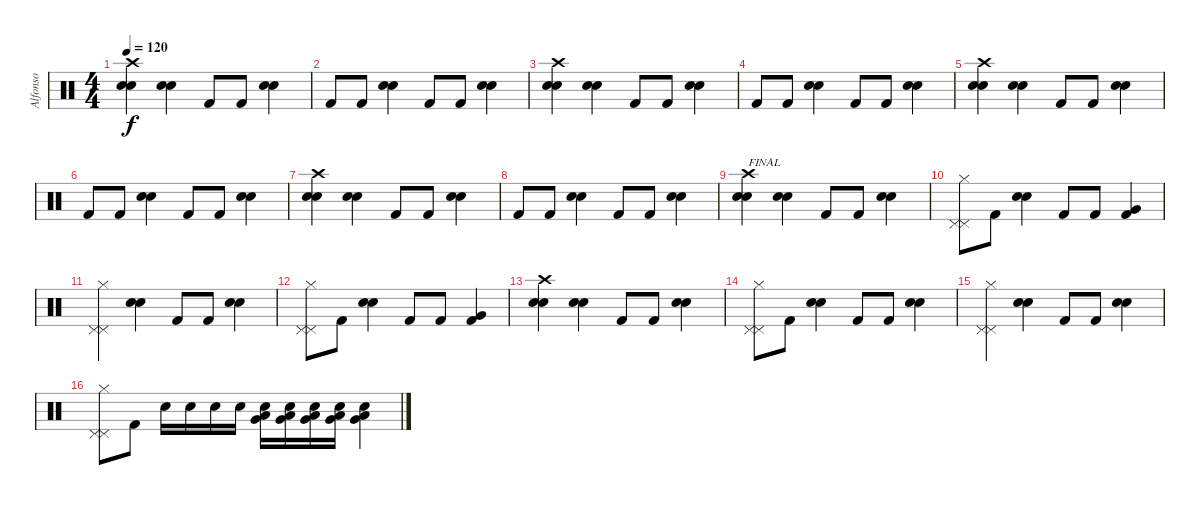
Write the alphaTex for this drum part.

\track ("Alfonso" "Alfonso") {instrument percussion}
\staff {score}
\articulation defaults
\ts (4 4)
\tempo 120
\clef neutral
\ks c
("Snare (hit) 2" "Crash high (hit)" "Electric Snare (hit)").4{dy f} ("Electric Snare (hit)" "Electric Snare (hit)").4 "Kick (hit) 2".8 "Kick (hit) 2".8 ("Electric Snare (hit)" "Electric Snare (hit)").4 |
"Kick (hit) 2".8 "Kick (hit) 2".8 ("Electric Snare (hit)" "Electric Snare (hit)").4 "Kick (hit) 2".8 "Kick (hit) 2".8 ("Electric Snare (hit)" "Electric Snare (hit)").4 |
("Snare (hit) 2" "Crash high (hit)" "Electric Snare (hit)").4 ("Electric Snare (hit)" "Electric Snare (hit)").4 "Kick (hit) 2".8 "Kick (hit) 2".8 ("Electric Snare (hit)" "Electric Snare (hit)").4 |
"Kick (hit) 2".8 "Kick (hit) 2".8 ("Electric Snare (hit)" "Electric Snare (hit)").4 "Kick (hit) 2".8 "Kick (hit) 2".8 ("Electric Snare (hit)" "Electric Snare (hit)").4 |
("Snare (hit) 2" "Crash high (hit)" "Electric Snare (hit)").4 ("Electric Snare (hit)" "Electric Snare (hit)").4 "Kick (hit) 2".8 "Kick (hit) 2".8 ("Electric Snare (hit)" "Electric Snare (hit)").4 |
"Kick (hit) 2".8 "Kick (hit) 2".8 ("Electric Snare (hit)" "Electric Snare (hit)").4 "Kick (hit) 2".8 "Kick (hit) 2".8 ("Electric Snare (hit)" "Electric Snare (hit)").4 |
("Snare (hit) 2" "Crash high (hit)" "Electric Snare (hit)").4 ("Electric Snare (hit)" "Electric Snare (hit)").4 "Kick (hit) 2".8 "Kick (hit) 2".8 ("Electric Snare (hit)" "Electric Snare (hit)").4 |
"Kick (hit) 2".8 "Kick (hit) 2".8 ("Electric Snare (hit)" "Electric Snare (hit)").4 "Kick (hit) 2".8 "Kick (hit) 2".8 ("Electric Snare (hit)" "Electric Snare (hit)").4 |
("Snare (hit) 2" "Crash high (hit)" "Electric Snare (hit)").4{txt "FINAL"} ("Electric Snare (hit)" "Electric Snare (hit)").4 "Kick (hit) 2".8 "Kick (hit) 2".8 ("Electric Snare (hit)" "Electric Snare (hit)").4 |
("Pedal Hi-Hat (hit)" "Hi-Hat (closed)" "Pedal Hi-Hat (hit)").8 "Kick (hit) 2".8 ("Electric Snare (hit)" "Electric Snare (hit)").4 "Kick (hit) 2".8 "Kick (hit) 2".8 ("Kick (hit) 2" "Very Low Tom (hit)").4 |
("Pedal Hi-Hat (hit)" "Pedal Hi-Hat (hit)" "Hi-Hat (closed)").4 ("Electric Snare (hit)" "Electric Snare (hit)").4 "Kick (hit) 2".8 "Kick (hit) 2".8 ("Electric Snare (hit)" "Electric Snare (hit)").4 |
("Pedal Hi-Hat (hit)" "Hi-Hat (closed)" "Pedal Hi-Hat (hit)").8 "Kick (hit) 2".8 ("Electric Snare (hit)" "Electric Snare (hit)").4 "Kick (hit) 2".8 "Kick (hit) 2".8 ("Kick (hit) 2" "Very Low Tom (hit)").4 |
("Snare (hit) 2" "Crash high (hit)" "Electric Snare (hit)").4 ("Electric Snare (hit)" "Electric Snare (hit)").4 "Kick (hit) 2".8 "Kick (hit) 2".8 ("Electric Snare (hit)" "Electric Snare (hit)").4 |
("Pedal Hi-Hat (hit)" "Hi-Hat (closed)" "Pedal Hi-Hat (hit)").8 "Kick (hit) 2".8 ("Electric Snare (hit)" "Electric Snare (hit)").4 "Kick (hit) 2".8 "Kick (hit) 2".8 ("Electric Snare (hit)" "Electric Snare (hit)").4 |
("Pedal Hi-Hat (hit)" "Pedal Hi-Hat (hit)" "Hi-Hat (closed)").4 ("Electric Snare (hit)" "Electric Snare (hit)").4 "Kick (hit) 2".8 "Kick (hit) 2".8 ("Electric Snare (hit)" "Electric Snare (hit)").4 |
("Pedal Hi-Hat (hit)" "Hi-Hat (closed)" "Pedal Hi-Hat (hit)").8 "Kick (hit) 2".8 "Electric Snare (hit)".16 "Electric Snare (hit)".16 "Electric Snare (hit)".16 "Electric Snare (hit)".16 ("Very Low Tom (hit)" "Low Floor Tom (hit)" "Electric Snare (hit)").16 ("Very Low Tom (hit)" "Low Floor Tom (hit)" "Electric Snare (hit)").16 ("Very Low Tom (hit)" "Low Floor Tom (hit)" "Electric Snare (hit)").16 ("Very Low Tom (hit)" "Low Floor Tom (hit)" "Electric Snare (hit)").16 ("Very Low Tom (hit)" "Low Floor Tom (hit)" "Electric Snare (hit)").4
